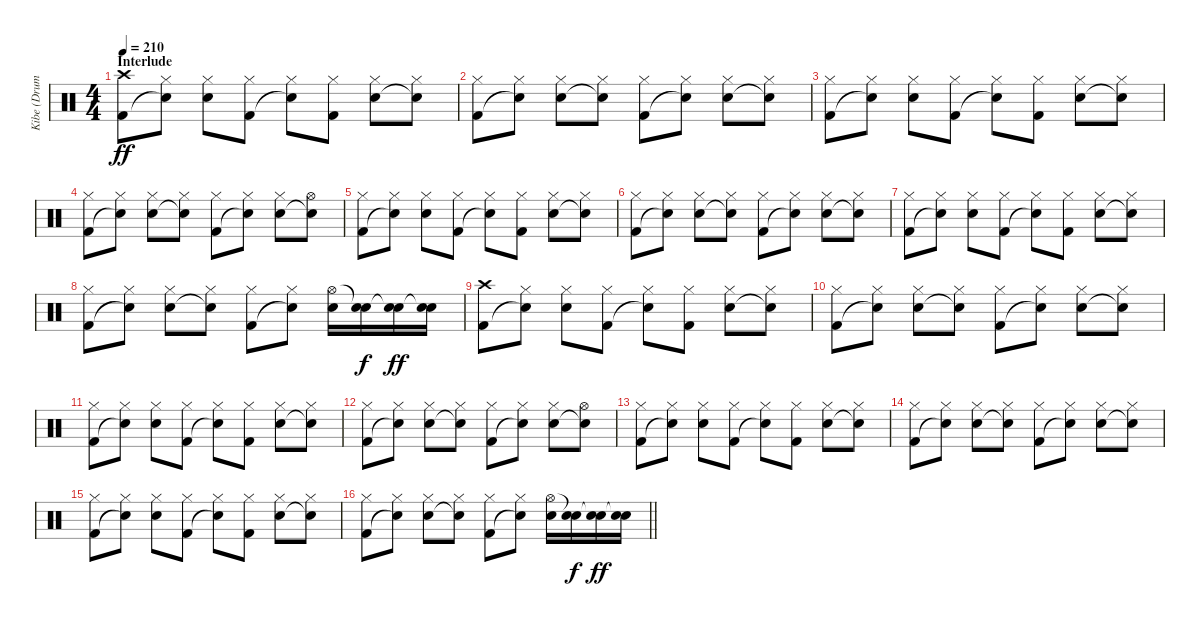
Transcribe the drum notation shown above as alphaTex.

\track ("Kibe (Drums)" "Kibe (Drum") {instrument percussion}
\staff {score}
\articulation defaults
\ts (4 4)
\section ("" "Interlude")
\tempo 210
\clef neutral
\ks c
("Crash high (hit)" "Kick (hit) 2").8{dy ff} ("Hi-Hat (closed)" "Snare (hit)"{t}).8 ("Hi-Hat (closed)" "Snare (hit) 2").8 ("Hi-Hat (closed)" "Kick (hit) 2").8 ("Hi-Hat (closed)" "Snare (hit)"{t}).8 ("Hi-Hat (closed)" "Kick (hit) 2").8 ("Hi-Hat (closed)" "Snare (hit) 2").8 ("Hi-Hat (closed)" "Snare (hit)"{t}).8 |
("Hi-Hat (closed)" "Kick (hit) 2").8 ("Hi-Hat (closed)" "Snare (hit)"{t}).8 ("Hi-Hat (closed)" "Snare (hit) 2").8 ("Hi-Hat (closed)" "Snare (hit)"{t}).8 ("Hi-Hat (closed)" "Kick (hit) 2").8 ("Hi-Hat (closed)" "Snare (hit)"{t}).8 ("Hi-Hat (closed)" "Snare (hit) 2").8 ("Hi-Hat (closed)" "Snare (hit)"{t}).8 |
("Hi-Hat (closed)" "Kick (hit) 2").8 ("Hi-Hat (closed)" "Snare (hit)"{t}).8 ("Hi-Hat (closed)" "Snare (hit) 2").8 ("Hi-Hat (closed)" "Kick (hit) 2").8 ("Hi-Hat (closed)" "Snare (hit)"{t}).8 ("Hi-Hat (closed)" "Kick (hit) 2").8 ("Hi-Hat (closed)" "Snare (hit) 2").8 ("Hi-Hat (closed)" "Snare (hit)"{t}).8 |
("Hi-Hat (closed)" "Kick (hit) 2").8 ("Hi-Hat (closed)" "Snare (hit)"{t}).8 ("Hi-Hat (closed)" "Snare (hit) 2").8 ("Hi-Hat (closed)" "Snare (hit)"{t}).8 ("Hi-Hat (closed)" "Kick (hit) 2").8 ("Hi-Hat (closed)" "Snare (hit)"{t}).8 ("Hi-Hat (closed)" "Snare (hit) 2").8 ("Hi-Hat (open)" "Snare (hit)"{t}).8 |
("Hi-Hat (closed)" "Kick (hit) 2").8 ("Hi-Hat (closed)" "Snare (hit)"{t}).8 ("Hi-Hat (closed)" "Snare (hit) 2").8 ("Hi-Hat (closed)" "Kick (hit) 2").8 ("Hi-Hat (closed)" "Snare (hit)"{t}).8 ("Hi-Hat (closed)" "Kick (hit) 2").8 ("Hi-Hat (closed)" "Snare (hit) 2").8 ("Hi-Hat (closed)" "Snare (hit)"{t}).8 |
("Hi-Hat (closed)" "Kick (hit) 2").8 ("Hi-Hat (closed)" "Snare (hit)"{t}).8 ("Hi-Hat (closed)" "Snare (hit) 2").8 ("Hi-Hat (closed)" "Snare (hit)"{t}).8 ("Hi-Hat (closed)" "Kick (hit) 2").8 ("Hi-Hat (closed)" "Snare (hit)"{t}).8 ("Hi-Hat (closed)" "Snare (hit) 2").8 ("Hi-Hat (closed)" "Snare (hit)"{t}).8 |
("Hi-Hat (closed)" "Kick (hit) 2").8 ("Hi-Hat (closed)" "Snare (hit)"{t}).8 ("Hi-Hat (closed)" "Snare (hit) 2").8 ("Hi-Hat (closed)" "Kick (hit) 2").8 ("Hi-Hat (closed)" "Snare (hit)"{t}).8 ("Hi-Hat (closed)" "Kick (hit) 2").8 ("Hi-Hat (closed)" "Snare (hit) 2").8 ("Hi-Hat (closed)" "Snare (hit)"{t}).8 |
("Hi-Hat (closed)" "Kick (hit) 2").8 ("Hi-Hat (closed)" "Snare (hit)"{t}).8 ("Hi-Hat (closed)" "Snare (hit) 2").8 ("Hi-Hat (closed)" "Snare (hit)"{t}).8 ("Hi-Hat (closed)" "Kick (hit) 2").8 ("Hi-Hat (closed)" "Snare (hit)"{t}).8 ("Hi-Hat (open)" "Snare (hit) 2").16 ("Snare (hit)"{t} "Snare (hit) 2").16{dy f} ("Snare (hit)"{t} "Snare (hit) 2").16{dy ff} ("Snare (hit)"{t} "Snare (hit) 2").16 |
("Crash high (hit)" "Kick (hit) 2").8 ("Hi-Hat (closed)" "Snare (hit)"{t}).8 ("Hi-Hat (closed)" "Snare (hit) 2").8 ("Hi-Hat (closed)" "Kick (hit) 2").8 ("Hi-Hat (closed)" "Snare (hit)"{t}).8 ("Hi-Hat (closed)" "Kick (hit) 2").8 ("Hi-Hat (closed)" "Snare (hit) 2").8 ("Hi-Hat (closed)" "Snare (hit)"{t}).8 |
("Hi-Hat (closed)" "Kick (hit) 2").8 ("Hi-Hat (closed)" "Snare (hit)"{t}).8 ("Hi-Hat (closed)" "Snare (hit) 2").8 ("Hi-Hat (closed)" "Snare (hit)"{t}).8 ("Hi-Hat (closed)" "Kick (hit) 2").8 ("Hi-Hat (closed)" "Snare (hit)"{t}).8 ("Hi-Hat (closed)" "Snare (hit) 2").8 ("Hi-Hat (closed)" "Snare (hit)"{t}).8 |
("Hi-Hat (closed)" "Kick (hit) 2").8 ("Hi-Hat (closed)" "Snare (hit)"{t}).8 ("Hi-Hat (closed)" "Snare (hit) 2").8 ("Hi-Hat (closed)" "Kick (hit) 2").8 ("Hi-Hat (closed)" "Snare (hit)"{t}).8 ("Hi-Hat (closed)" "Kick (hit) 2").8 ("Hi-Hat (closed)" "Snare (hit) 2").8 ("Hi-Hat (closed)" "Snare (hit)"{t}).8 |
("Hi-Hat (closed)" "Kick (hit) 2").8 ("Hi-Hat (closed)" "Snare (hit)"{t}).8 ("Hi-Hat (closed)" "Snare (hit) 2").8 ("Hi-Hat (closed)" "Snare (hit)"{t}).8 ("Hi-Hat (closed)" "Kick (hit) 2").8 ("Hi-Hat (closed)" "Snare (hit)"{t}).8 ("Hi-Hat (closed)" "Snare (hit) 2").8 ("Hi-Hat (open)" "Snare (hit)"{t}).8 |
("Hi-Hat (closed)" "Kick (hit) 2").8 ("Hi-Hat (closed)" "Snare (hit)"{t}).8 ("Hi-Hat (closed)" "Snare (hit) 2").8 ("Hi-Hat (closed)" "Kick (hit) 2").8 ("Hi-Hat (closed)" "Snare (hit)"{t}).8 ("Hi-Hat (closed)" "Kick (hit) 2").8 ("Hi-Hat (closed)" "Snare (hit) 2").8 ("Hi-Hat (closed)" "Snare (hit)"{t}).8 |
("Hi-Hat (closed)" "Kick (hit) 2").8 ("Hi-Hat (closed)" "Snare (hit)"{t}).8 ("Hi-Hat (closed)" "Snare (hit) 2").8 ("Hi-Hat (closed)" "Snare (hit)"{t}).8 ("Hi-Hat (closed)" "Kick (hit) 2").8 ("Hi-Hat (closed)" "Snare (hit)"{t}).8 ("Hi-Hat (closed)" "Snare (hit) 2").8 ("Hi-Hat (closed)" "Snare (hit)"{t}).8 |
("Hi-Hat (closed)" "Kick (hit) 2").8 ("Hi-Hat (closed)" "Snare (hit)"{t}).8 ("Hi-Hat (closed)" "Snare (hit) 2").8 ("Hi-Hat (closed)" "Kick (hit) 2").8 ("Hi-Hat (closed)" "Snare (hit)"{t}).8 ("Hi-Hat (closed)" "Kick (hit) 2").8 ("Hi-Hat (closed)" "Snare (hit) 2").8 ("Hi-Hat (closed)" "Snare (hit)"{t}).8 |
\barLineRight lightlight
("Hi-Hat (closed)" "Kick (hit) 2").8 ("Hi-Hat (closed)" "Snare (hit)"{t}).8 ("Hi-Hat (closed)" "Snare (hit) 2").8 ("Hi-Hat (closed)" "Snare (hit)"{t}).8 ("Hi-Hat (closed)" "Kick (hit) 2").8 ("Hi-Hat (closed)" "Snare (hit)"{t}).8 ("Hi-Hat (open)" "Snare (hit) 2").16 ("Snare (hit)"{t} "Snare (hit) 2").16{dy f} ("Snare (hit)"{t} "Snare (hit) 2").16{dy ff} ("Snare (hit)"{t} "Snare (hit) 2").16
